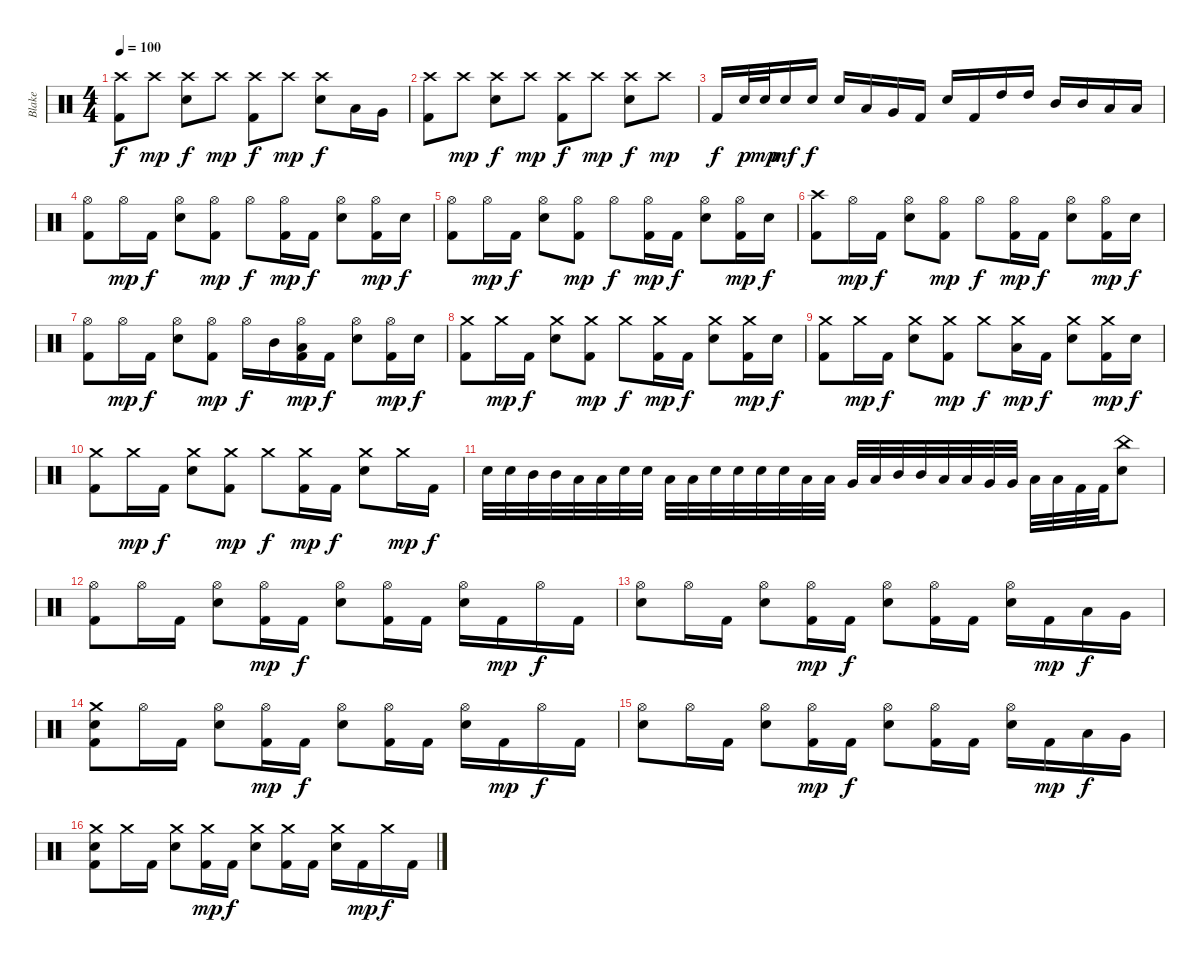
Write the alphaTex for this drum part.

\track ("Blake" "Blake") {instrument percussion}
\staff {score}
\articulation defaults
\ts (4 4)
\tempo 100
\clef neutral
\ks c
("Crash high (hit)" "Kick (hit) 2").8{dy f} "Crash high (hit)".8{dy mp} ("Crash high (hit)" "Snare (hit) 2").8{dy f} "Crash high (hit)".8{dy mp} ("Crash high (hit)" "Kick (hit) 2").8{dy f} "Crash high (hit)".8{dy mp} ("Crash high (hit)" "Snare (hit) 2").8{dy f} "Low Tom (hit)".16 "Very Low Tom (hit)".16 |
("Crash high (hit)" "Kick (hit) 2").8 "Crash high (hit)".8{dy mp} ("Crash high (hit)" "Snare (hit) 2").8{dy f} "Crash high (hit)".8{dy mp} ("Crash high (hit)" "Kick (hit) 2").8{dy f} "Crash high (hit)".8{dy mp} ("Crash high (hit)" "Snare (hit) 2").8{dy f} "Crash high (hit)".8{dy mp} |
"Kick (hit) 2".16{dy f} "Snare (hit) 2".32{dy p} "Snare (hit) 2".32{dy mp} "Snare (hit) 2".16{dy mf} "Snare (hit) 2".16{dy f} "Snare (hit) 2".16 "Low Tom (hit)".16 "Very Low Tom (hit)".16 "Kick (hit) 2".16 "Snare (hit) 2".16 "Kick (hit) 2".16 "High Tom (hit)".16 "High Tom (hit)".16 "Mid Tom (hit)".16 "Mid Tom (hit)".16 "Low Tom (hit)".16 "Low Tom (hit)".16 |
("Hi-Hat (open)" "Kick (hit) 2").8 "Hi-Hat (open)".16{dy mp} "Kick (hit) 2".16{dy f} ("Hi-Hat (open)" "Snare (hit) 2").8 ("Hi-Hat (open)" "Kick (hit) 2").8{dy mp} "Hi-Hat (open)".8{dy f} ("Hi-Hat (open)" "Kick (hit) 2").16{dy mp} "Kick (hit) 2".16{dy f} ("Hi-Hat (open)" "Snare (hit) 2").8 ("Hi-Hat (open)" "Kick (hit) 2").16{dy mp} "Snare (hit) 2".16{dy f} |
("Hi-Hat (open)" "Kick (hit) 2").8 "Hi-Hat (open)".16{dy mp} "Kick (hit) 2".16{dy f} ("Hi-Hat (open)" "Snare (hit) 2").8 ("Hi-Hat (open)" "Kick (hit) 2").8{dy mp} "Hi-Hat (open)".8{dy f} ("Hi-Hat (open)" "Kick (hit) 2").16{dy mp} "Kick (hit) 2".16{dy f} ("Hi-Hat (open)" "Snare (hit) 2").8 ("Hi-Hat (open)" "Kick (hit) 2").16{dy mp} "Snare (hit) 2".16{dy f} |
("Crash high (hit)" "Kick (hit) 2").8 "Hi-Hat (open)".16{dy mp} "Kick (hit) 2".16{dy f} ("Hi-Hat (open)" "Snare (hit) 2").8 ("Hi-Hat (open)" "Kick (hit) 2").8{dy mp} "Hi-Hat (open)".8{dy f} ("Hi-Hat (open)" "Kick (hit) 2").16{dy mp} "Kick (hit) 2".16{dy f} ("Hi-Hat (open)" "Snare (hit) 2").8 ("Hi-Hat (open)" "Kick (hit) 2").16{dy mp} "Snare (hit) 2".16{dy f} |
("Hi-Hat (open)" "Kick (hit) 2").8 "Hi-Hat (open)".16{dy mp} "Kick (hit) 2".16{dy f} ("Hi-Hat (open)" "Snare (hit) 2").8 ("Hi-Hat (open)" "Kick (hit) 2").8{dy mp} "Hi-Hat (open)".16{dy f} "Mid Tom (hit)".16 ("Hi-Hat (open)" "Low Tom (hit)" "Kick (hit) 2").16{dy mp} "Kick (hit) 2".16{dy f} ("Hi-Hat (open)" "Snare (hit) 2").8 ("Hi-Hat (open)" "Kick (hit) 2").16{dy mp} "Snare (hit) 2".16{dy f} |
("Crash medium (hit)" "Kick (hit) 2").8 "Crash medium (hit)".16{dy mp} "Kick (hit) 2".16{dy f} ("Crash medium (hit)" "Snare (hit) 2").8 ("Crash medium (hit)" "Kick (hit) 2").8{dy mp} "Crash medium (hit)".8{dy f} ("Crash medium (hit)" "Kick (hit) 2").16{dy mp} "Kick (hit) 2".16{dy f} ("Crash medium (hit)" "Snare (hit) 2").8 ("Crash medium (hit)" "Kick (hit) 2").16{dy mp} "Snare (hit) 2".16{dy f} |
("Crash medium (hit)" "Kick (hit) 2").8 "Crash medium (hit)".16{dy mp} "Kick (hit) 2".16{dy f} ("Crash medium (hit)" "Snare (hit) 2").8 ("Crash medium (hit)" "Kick (hit) 2").8{dy mp} "Crash medium (hit)".8{dy f} ("Crash medium (hit)" "Low Tom (hit)").16{dy mp} "Kick (hit) 2".16{dy f} ("Crash medium (hit)" "Snare (hit) 2").8 ("Crash medium (hit)" "Kick (hit) 2").16{dy mp} "Snare (hit) 2".16{dy f} |
("Crash medium (hit)" "Kick (hit) 2").8 "Crash medium (hit)".16{dy mp} "Kick (hit) 2".16{dy f} ("Crash medium (hit)" "Snare (hit) 2").8 ("Crash medium (hit)" "Kick (hit) 2").8{dy mp} "Crash medium (hit)".8{dy f} ("Crash medium (hit)" "Kick (hit) 2").16{dy mp} "Kick (hit) 2".16{dy f} ("Crash medium (hit)" "Snare (hit) 2").8 "Crash medium (hit)".16{dy mp} "Kick (hit) 2".16{dy f} |
"Snare (hit) 2".32 "Snare (hit) 2".32 "Mid Tom (hit)".32 "Mid Tom (hit)".32 "Low Tom (hit)".32 "Low Tom (hit)".32 "Snare (hit) 2".32 "Snare (hit) 2".32 "Low Tom (hit)".32 "Low Tom (hit)".32 "Snare (hit) 2".32 "Snare (hit) 2".32 "Snare (hit) 2".32 "Snare (hit) 2".32 "Low Tom (hit)".32 "Low Tom (hit)".32 "Very Low Tom (hit)".32 "Low Floor Tom (hit)".32 "Mid Tom (hit)".32 "Mid Tom (hit)".32 "Low Tom (hit)".32 "Low Tom (hit)".32 "Very Low Tom (hit)".32 "Very Low Tom (hit)".32 "Low Floor Tom (hit)".32 "Low Floor Tom (hit)".32 "Kick (hit) 2".32 "Kick (hit) 2".32 ("China (hit)" "Snare (hit) 2").8 |
("Hi-Hat (open)" "Kick (hit) 2").8 "Hi-Hat (open)".16 "Kick (hit) 2".16 ("Hi-Hat (open)" "Snare (hit) 2").8 ("Hi-Hat (open)" "Kick (hit) 2").16{dy mp} "Kick (hit) 2".16{dy f} ("Hi-Hat (open)" "Snare (hit) 2").8 ("Hi-Hat (open)" "Kick (hit) 2").16 "Kick (hit) 2".16 ("Hi-Hat (open)" "Snare (hit) 2").16 "Kick (hit) 2".16{dy mp} "Hi-Hat (open)".16{dy f} "Kick (hit) 2".16 |
("Hi-Hat (open)" "Snare (hit) 2").8 "Hi-Hat (open)".16 "Kick (hit) 2".16 ("Hi-Hat (open)" "Snare (hit) 2").8 ("Hi-Hat (open)" "Kick (hit) 2").16{dy mp} "Kick (hit) 2".16{dy f} ("Hi-Hat (open)" "Snare (hit) 2").8 ("Hi-Hat (open)" "Kick (hit) 2").16 "Kick (hit) 2".16 ("Hi-Hat (open)" "Snare (hit) 2").16 "Kick (hit) 2".16{dy mp} "Low Tom (hit)".16{dy f} "Very Low Tom (hit)".16 |
("Crash medium (hit)" "Snare (hit) 2" "Kick (hit) 2").8 "Hi-Hat (open)".16 "Kick (hit) 2".16 ("Hi-Hat (open)" "Snare (hit) 2").8 ("Hi-Hat (open)" "Kick (hit) 2").16{dy mp} "Kick (hit) 2".16{dy f} ("Hi-Hat (open)" "Snare (hit) 2").8 ("Hi-Hat (open)" "Kick (hit) 2").16 "Kick (hit) 2".16 ("Hi-Hat (open)" "Snare (hit) 2").16 "Kick (hit) 2".16{dy mp} "Hi-Hat (open)".16{dy f} "Kick (hit) 2".16 |
("Hi-Hat (open)" "Snare (hit) 2").8 "Hi-Hat (open)".16 "Kick (hit) 2".16 ("Hi-Hat (open)" "Snare (hit) 2").8 ("Hi-Hat (open)" "Kick (hit) 2").16{dy mp} "Kick (hit) 2".16{dy f} ("Hi-Hat (open)" "Snare (hit) 2").8 ("Hi-Hat (open)" "Kick (hit) 2").16 "Kick (hit) 2".16 ("Hi-Hat (open)" "Snare (hit) 2").16 "Kick (hit) 2".16{dy mp} "Low Tom (hit)".16{dy f} "Very Low Tom (hit)".16 |
("Crash medium (hit)" "Snare (hit) 2" "Kick (hit) 2").8 "Crash medium (hit)".16 "Kick (hit) 2".16 ("Crash medium (hit)" "Snare (hit) 2").8 ("Crash medium (hit)" "Kick (hit) 2").16{dy mp} "Kick (hit) 2".16{dy f} ("Crash medium (hit)" "Snare (hit) 2").8 ("Crash medium (hit)" "Kick (hit) 2").16 "Kick (hit) 2".16 ("Crash medium (hit)" "Snare (hit) 2").16 "Kick (hit) 2".16{dy mp} "Crash medium (hit)".16{dy f} "Kick (hit) 2".16
